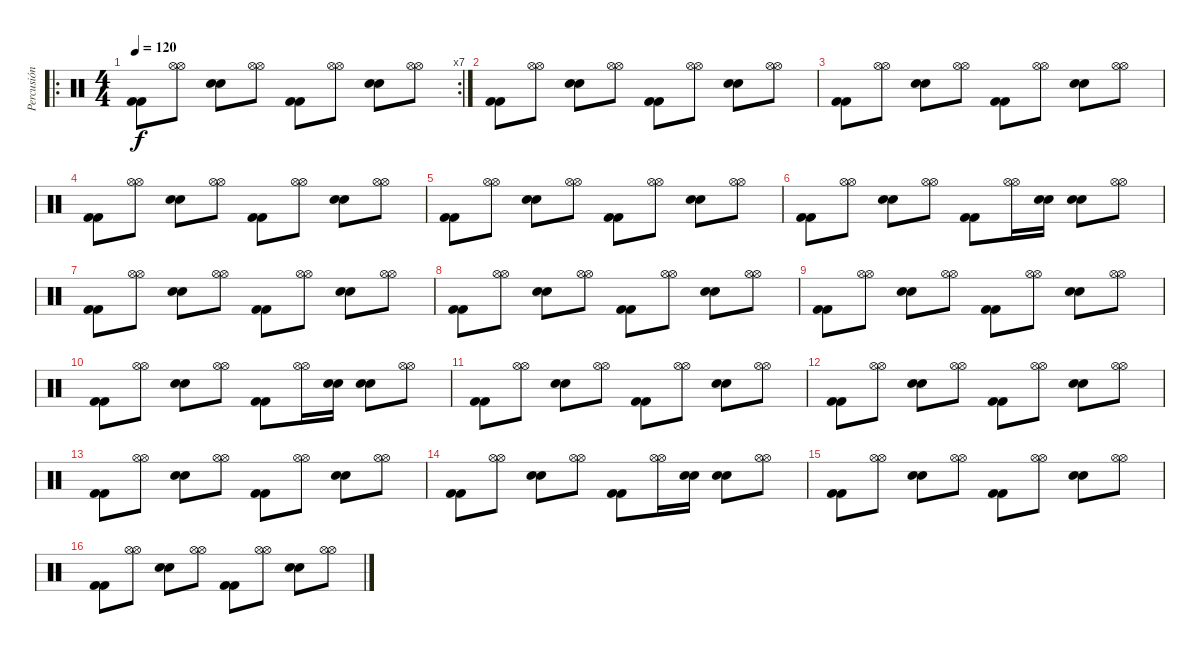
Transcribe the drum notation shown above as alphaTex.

\track ("Percusión" "Percusión") {instrument percussion}
\staff {score}
\articulation defaults
\ro
\rc 7
\ts (4 4)
\tempo 120
\clef neutral
\ks c
("Kick (hit) 2" "Kick (hit) 2").8{dy f} ("Hi-Hat (open)" "Hi-Hat (open)").8 ("Electric Snare (hit)" "Electric Snare (hit)").8 ("Hi-Hat (open)" "Hi-Hat (open)").8 ("Kick (hit) 2" "Kick (hit) 2").8 ("Hi-Hat (open)" "Hi-Hat (open)").8 ("Electric Snare (hit)" "Electric Snare (hit)").8 ("Hi-Hat (open)" "Hi-Hat (open)").8 |
("Kick (hit) 2" "Kick (hit) 2").8 ("Hi-Hat (open)" "Hi-Hat (open)").8 ("Electric Snare (hit)" "Electric Snare (hit)").8 ("Hi-Hat (open)" "Hi-Hat (open)").8 ("Kick (hit) 2" "Kick (hit) 2").8 ("Hi-Hat (open)" "Hi-Hat (open)").8 ("Electric Snare (hit)" "Electric Snare (hit)").8 ("Hi-Hat (open)" "Hi-Hat (open)").8 |
("Kick (hit) 2" "Kick (hit) 2").8 ("Hi-Hat (open)" "Hi-Hat (open)").8 ("Electric Snare (hit)" "Electric Snare (hit)").8 ("Hi-Hat (open)" "Hi-Hat (open)").8 ("Kick (hit) 2" "Kick (hit) 2").8 ("Hi-Hat (open)" "Hi-Hat (open)").8 ("Electric Snare (hit)" "Electric Snare (hit)").8 ("Hi-Hat (open)" "Hi-Hat (open)").8 |
("Kick (hit) 2" "Kick (hit) 2").8 ("Hi-Hat (open)" "Hi-Hat (open)").8 ("Electric Snare (hit)" "Electric Snare (hit)").8 ("Hi-Hat (open)" "Hi-Hat (open)").8 ("Kick (hit) 2" "Kick (hit) 2").8 ("Hi-Hat (open)" "Hi-Hat (open)").8 ("Electric Snare (hit)" "Electric Snare (hit)").8 ("Hi-Hat (open)" "Hi-Hat (open)").8 |
("Kick (hit) 2" "Kick (hit) 2").8 ("Hi-Hat (open)" "Hi-Hat (open)").8 ("Electric Snare (hit)" "Electric Snare (hit)").8 ("Hi-Hat (open)" "Hi-Hat (open)").8 ("Kick (hit) 2" "Kick (hit) 2").8 ("Hi-Hat (open)" "Hi-Hat (open)").8 ("Electric Snare (hit)" "Electric Snare (hit)").8 ("Hi-Hat (open)" "Hi-Hat (open)").8 |
("Kick (hit) 2" "Kick (hit) 2").8 ("Hi-Hat (open)" "Hi-Hat (open)").8 ("Electric Snare (hit)" "Electric Snare (hit)").8 ("Hi-Hat (open)" "Hi-Hat (open)").8 ("Kick (hit) 2" "Kick (hit) 2").8 ("Hi-Hat (open)" "Hi-Hat (open)").16 ("Electric Snare (hit)" "Electric Snare (hit)").16 ("Electric Snare (hit)" "Electric Snare (hit)").8 ("Hi-Hat (open)" "Hi-Hat (open)").8 |
("Kick (hit) 2" "Kick (hit) 2").8 ("Hi-Hat (open)" "Hi-Hat (open)").8 ("Electric Snare (hit)" "Electric Snare (hit)").8 ("Hi-Hat (open)" "Hi-Hat (open)").8 ("Kick (hit) 2" "Kick (hit) 2").8 ("Hi-Hat (open)" "Hi-Hat (open)").8 ("Electric Snare (hit)" "Electric Snare (hit)").8 ("Hi-Hat (open)" "Hi-Hat (open)").8 |
("Kick (hit) 2" "Kick (hit) 2").8 ("Hi-Hat (open)" "Hi-Hat (open)").8 ("Electric Snare (hit)" "Electric Snare (hit)").8 ("Hi-Hat (open)" "Hi-Hat (open)").8 ("Kick (hit) 2" "Kick (hit) 2").8 ("Hi-Hat (open)" "Hi-Hat (open)").8 ("Electric Snare (hit)" "Electric Snare (hit)").8 ("Hi-Hat (open)" "Hi-Hat (open)").8 |
("Kick (hit) 2" "Kick (hit) 2").8 ("Hi-Hat (open)" "Hi-Hat (open)").8 ("Electric Snare (hit)" "Electric Snare (hit)").8 ("Hi-Hat (open)" "Hi-Hat (open)").8 ("Kick (hit) 2" "Kick (hit) 2").8 ("Hi-Hat (open)" "Hi-Hat (open)").8 ("Electric Snare (hit)" "Electric Snare (hit)").8 ("Hi-Hat (open)" "Hi-Hat (open)").8 |
("Kick (hit) 2" "Kick (hit) 2").8 ("Hi-Hat (open)" "Hi-Hat (open)").8 ("Electric Snare (hit)" "Electric Snare (hit)").8 ("Hi-Hat (open)" "Hi-Hat (open)").8 ("Kick (hit) 2" "Kick (hit) 2").8 ("Hi-Hat (open)" "Hi-Hat (open)").16 ("Electric Snare (hit)" "Electric Snare (hit)").16 ("Electric Snare (hit)" "Electric Snare (hit)").8 ("Hi-Hat (open)" "Hi-Hat (open)").8 |
("Kick (hit) 2" "Kick (hit) 2").8 ("Hi-Hat (open)" "Hi-Hat (open)").8 ("Electric Snare (hit)" "Electric Snare (hit)").8 ("Hi-Hat (open)" "Hi-Hat (open)").8 ("Kick (hit) 2" "Kick (hit) 2").8 ("Hi-Hat (open)" "Hi-Hat (open)").8 ("Electric Snare (hit)" "Electric Snare (hit)").8 ("Hi-Hat (open)" "Hi-Hat (open)").8 |
("Kick (hit) 2" "Kick (hit) 2").8 ("Hi-Hat (open)" "Hi-Hat (open)").8 ("Electric Snare (hit)" "Electric Snare (hit)").8 ("Hi-Hat (open)" "Hi-Hat (open)").8 ("Kick (hit) 2" "Kick (hit) 2").8 ("Hi-Hat (open)" "Hi-Hat (open)").8 ("Electric Snare (hit)" "Electric Snare (hit)").8 ("Hi-Hat (open)" "Hi-Hat (open)").8 |
("Kick (hit) 2" "Kick (hit) 2").8 ("Hi-Hat (open)" "Hi-Hat (open)").8 ("Electric Snare (hit)" "Electric Snare (hit)").8 ("Hi-Hat (open)" "Hi-Hat (open)").8 ("Kick (hit) 2" "Kick (hit) 2").8 ("Hi-Hat (open)" "Hi-Hat (open)").8 ("Electric Snare (hit)" "Electric Snare (hit)").8 ("Hi-Hat (open)" "Hi-Hat (open)").8 |
("Kick (hit) 2" "Kick (hit) 2").8 ("Hi-Hat (open)" "Hi-Hat (open)").8 ("Electric Snare (hit)" "Electric Snare (hit)").8 ("Hi-Hat (open)" "Hi-Hat (open)").8 ("Kick (hit) 2" "Kick (hit) 2").8 ("Hi-Hat (open)" "Hi-Hat (open)").16 ("Electric Snare (hit)" "Electric Snare (hit)").16 ("Electric Snare (hit)" "Electric Snare (hit)").8 ("Hi-Hat (open)" "Hi-Hat (open)").8 |
("Kick (hit) 2" "Kick (hit) 2").8 ("Hi-Hat (open)" "Hi-Hat (open)").8 ("Electric Snare (hit)" "Electric Snare (hit)").8 ("Hi-Hat (open)" "Hi-Hat (open)").8 ("Kick (hit) 2" "Kick (hit) 2").8 ("Hi-Hat (open)" "Hi-Hat (open)").8 ("Electric Snare (hit)" "Electric Snare (hit)").8 ("Hi-Hat (open)" "Hi-Hat (open)").8 |
("Kick (hit) 2" "Kick (hit) 2").8 ("Hi-Hat (open)" "Hi-Hat (open)").8 ("Electric Snare (hit)" "Electric Snare (hit)").8 ("Hi-Hat (open)" "Hi-Hat (open)").8 ("Kick (hit) 2" "Kick (hit) 2").8 ("Hi-Hat (open)" "Hi-Hat (open)").8 ("Electric Snare (hit)" "Electric Snare (hit)").8 ("Hi-Hat (open)" "Hi-Hat (open)").8
